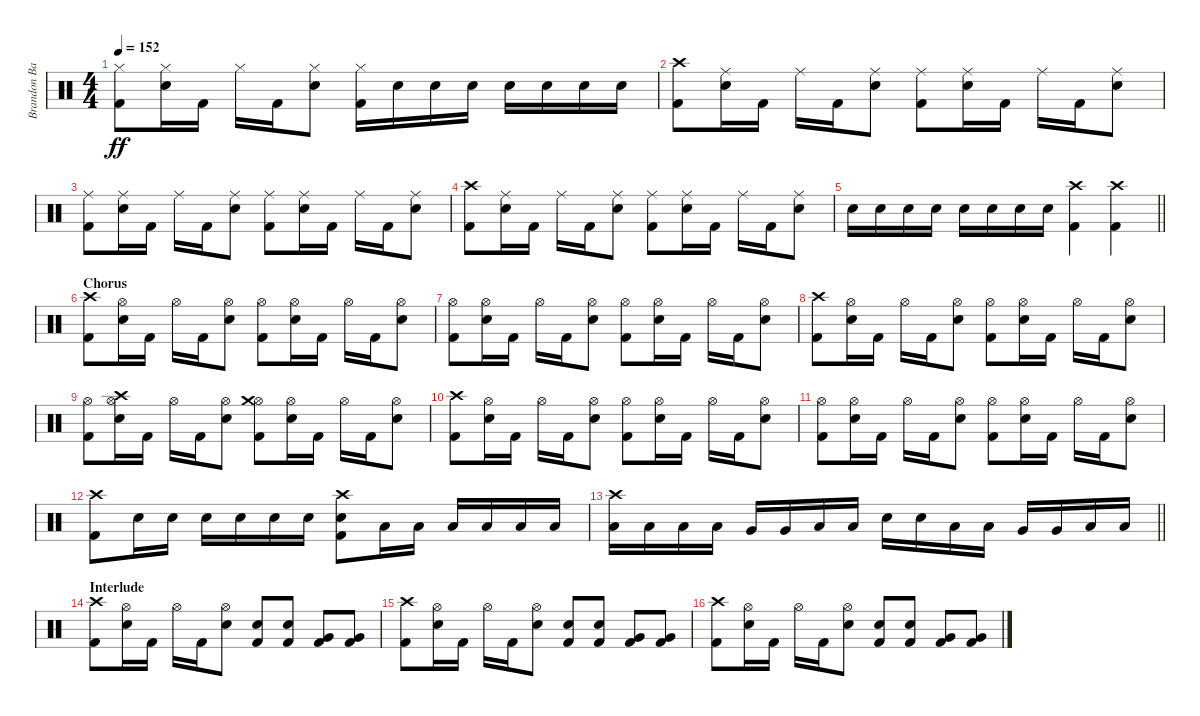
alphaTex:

\track ("Brandon Barnes - Drums" "Brandon Ba") {instrument percussion}
\staff {score}
\articulation defaults
\ts (4 4)
\tempo 152
\clef neutral
\ks c
("Hi-Hat (closed)" "Kick (hit) 2").8{dy ff} ("Snare (hit) 2" "Hi-Hat (closed)").16 "Kick (hit) 2".16 "Hi-Hat (closed)".16 "Kick (hit) 2".16 ("Snare (hit) 2" "Hi-Hat (closed)").8 ("Hi-Hat (closed)" "Kick (hit) 2").16 "Snare (hit) 2".16 "Snare (hit) 2".16 "Snare (hit) 2".16 "Snare (hit) 2".16 "Snare (hit) 2".16 "Snare (hit) 2".16 "Snare (hit) 2".16 |
("Crash high (hit)" "Kick (hit) 2").8 ("Snare (hit) 2" "Ride (middle)").16 "Kick (hit) 2".16 "Ride (middle)".16 "Kick (hit) 2".16 ("Snare (hit) 2" "Ride (middle)").8 ("Ride (middle)" "Kick (hit) 2").8 ("Snare (hit) 2" "Ride (middle)").16 "Kick (hit) 2".16 "Ride (middle)".16 "Kick (hit) 2".16 ("Snare (hit) 2" "Ride (middle)").8 |
("Ride (middle)" "Kick (hit) 2").8 ("Snare (hit) 2" "Ride (middle)").16 "Kick (hit) 2".16 "Ride (middle)".16 "Kick (hit) 2".16 ("Snare (hit) 2" "Ride (middle)").8 ("Ride (middle)" "Kick (hit) 2").8 ("Snare (hit) 2" "Ride (middle)").16 "Kick (hit) 2".16 "Ride (middle)".16 "Kick (hit) 2".16 ("Snare (hit) 2" "Ride (middle)").8 |
("Crash high (hit)" "Kick (hit) 2").8 ("Snare (hit) 2" "Ride (middle)").16 "Kick (hit) 2".16 "Ride (middle)".16 "Kick (hit) 2".16 ("Snare (hit) 2" "Ride (middle)").8 ("Ride (middle)" "Kick (hit) 2").8 ("Snare (hit) 2" "Ride (middle)").16 "Kick (hit) 2".16 "Ride (middle)".16 "Kick (hit) 2".16 ("Snare (hit) 2" "Ride (middle)").8 |
\barLineRight lightlight "Snare (hit) 2".16 "Snare (hit) 2".16 "Snare (hit) 2".16 "Snare (hit) 2".16 "Snare (hit) 2".16 "Snare (hit) 2".16 "Snare (hit) 2".16 "Snare (hit) 2".16
("Crash high (hit)" "Kick (hit) 2").4 ("Crash high (hit)" "Kick (hit) 2").4 |
\section ("" "Chorus")
("Crash high (hit)" "Kick (hit) 2").8 ("Snare (hit) 2" "Hi-Hat (open)").16 "Kick (hit) 2".16 "Hi-Hat (open)".16 "Kick (hit) 2".16 ("Snare (hit) 2" "Hi-Hat (open)").8 ("Hi-Hat (open)" "Kick (hit) 2").8 ("Snare (hit) 2" "Hi-Hat (open)").16 "Kick (hit) 2".16 "Hi-Hat (open)".16 "Kick (hit) 2".16 ("Snare (hit) 2" "Hi-Hat (open)").8 |
("Hi-Hat (open)" "Kick (hit) 2").8 ("Snare (hit) 2" "Hi-Hat (open)").16 "Kick (hit) 2".16 "Hi-Hat (open)".16 "Kick (hit) 2".16 ("Snare (hit) 2" "Hi-Hat (open)").8 ("Hi-Hat (open)" "Kick (hit) 2").8 ("Snare (hit) 2" "Hi-Hat (open)").16 "Kick (hit) 2".16 "Hi-Hat (open)".16 "Kick (hit) 2".16 ("Snare (hit) 2" "Hi-Hat (open)").8 |
("Crash high (hit)" "Kick (hit) 2").8 ("Snare (hit) 2" "Hi-Hat (open)").16 "Kick (hit) 2".16 "Hi-Hat (open)".16 "Kick (hit) 2".16 ("Snare (hit) 2" "Hi-Hat (open)").8 ("Hi-Hat (open)" "Kick (hit) 2").8 ("Snare (hit) 2" "Hi-Hat (open)").16 "Kick (hit) 2".16 "Hi-Hat (open)".16 "Kick (hit) 2".16 ("Snare (hit) 2" "Hi-Hat (open)").8 |
("Hi-Hat (open)" "Kick (hit) 2").8 ("Snare (hit) 2" "Hi-Hat (open)" "Crash high (hit)").16 "Kick (hit) 2".16 "Hi-Hat (open)".16 "Kick (hit) 2".16 ("Snare (hit) 2" "Hi-Hat (open)").8 ("Hi-Hat (open)" "Kick (hit) 2" "Crash medium (hit)").8 ("Snare (hit) 2" "Hi-Hat (open)").16 "Kick (hit) 2".16 "Hi-Hat (open)".16 "Kick (hit) 2".16 ("Snare (hit) 2" "Hi-Hat (open)").8 |
("Crash high (hit)" "Kick (hit) 2").8 ("Snare (hit) 2" "Hi-Hat (open)").16 "Kick (hit) 2".16 "Hi-Hat (open)".16 "Kick (hit) 2".16 ("Snare (hit) 2" "Hi-Hat (open)").8 ("Hi-Hat (open)" "Kick (hit) 2").8 ("Snare (hit) 2" "Hi-Hat (open)").16 "Kick (hit) 2".16 "Hi-Hat (open)".16 "Kick (hit) 2".16 ("Snare (hit) 2" "Hi-Hat (open)").8 |
("Hi-Hat (open)" "Kick (hit) 2").8 ("Snare (hit) 2" "Hi-Hat (open)").16 "Kick (hit) 2".16 "Hi-Hat (open)".16 "Kick (hit) 2".16 ("Snare (hit) 2" "Hi-Hat (open)").8 ("Hi-Hat (open)" "Kick (hit) 2").8 ("Snare (hit) 2" "Hi-Hat (open)").16 "Kick (hit) 2".16 "Hi-Hat (open)".16 "Kick (hit) 2".16 ("Snare (hit) 2" "Hi-Hat (open)").8 |
("Crash high (hit)" "Kick (hit) 2").8 "Snare (hit) 2".16 "Snare (hit) 2".16 "Snare (hit) 2".16 "Snare (hit) 2".16 "Snare (hit) 2".16 "Snare (hit) 2".16 ("Crash high (hit)" "Kick (hit) 2" "Snare (hit) 2").8 "Low Tom (hit)".16 "Low Tom (hit)".16 "Low Tom (hit)".16 "Low Tom (hit)".16 "Low Tom (hit)".16 "Low Tom (hit)".16 |
\barLineRight lightlight
("Low Tom (hit)" "Crash high (hit)").16 "Low Tom (hit)".16 "Low Tom (hit)".16 "Low Tom (hit)".16 "Very Low Tom (hit)".16 "Very Low Tom (hit)".16 "Low Tom (hit)".16 "Low Tom (hit)".16 "Snare (hit) 2".16 "Snare (hit) 2".16 "Low Tom (hit)".16 "Low Tom (hit)".16 "Very Low Tom (hit)".16 "Very Low Tom (hit)".16 "Low Floor Tom (hit)".16 "Low Floor Tom (hit)".16 |
\section ("" "Interlude")
("Crash high (hit)" "Kick (hit) 2").8 ("Snare (hit) 2" "Hi-Hat (open)").16 "Kick (hit) 2".16 "Hi-Hat (open)".16 "Kick (hit) 2".16 ("Snare (hit) 2" "Hi-Hat (open)").8 ("Snare (hit) 2" "Kick (hit) 2").8 ("Snare (hit) 2" "Kick (hit) 2").8 ("Very Low Tom (hit)" "Kick (hit) 2").8 ("Very Low Tom (hit)" "Kick (hit) 2").8 |
("Crash high (hit)" "Kick (hit) 2").8 ("Snare (hit) 2" "Hi-Hat (open)").16 "Kick (hit) 2".16 "Hi-Hat (open)".16 "Kick (hit) 2".16 ("Snare (hit) 2" "Hi-Hat (open)").8 ("Snare (hit) 2" "Kick (hit) 2").8 ("Snare (hit) 2" "Kick (hit) 2").8 ("Very Low Tom (hit)" "Kick (hit) 2").8 ("Very Low Tom (hit)" "Kick (hit) 2").8 |
("Crash high (hit)" "Kick (hit) 2").8 ("Snare (hit) 2" "Hi-Hat (open)").16 "Kick (hit) 2".16 "Hi-Hat (open)".16 "Kick (hit) 2".16 ("Snare (hit) 2" "Hi-Hat (open)").8 ("Snare (hit) 2" "Kick (hit) 2").8 ("Snare (hit) 2" "Kick (hit) 2").8 ("Very Low Tom (hit)" "Kick (hit) 2").8 ("Very Low Tom (hit)" "Kick (hit) 2").8
